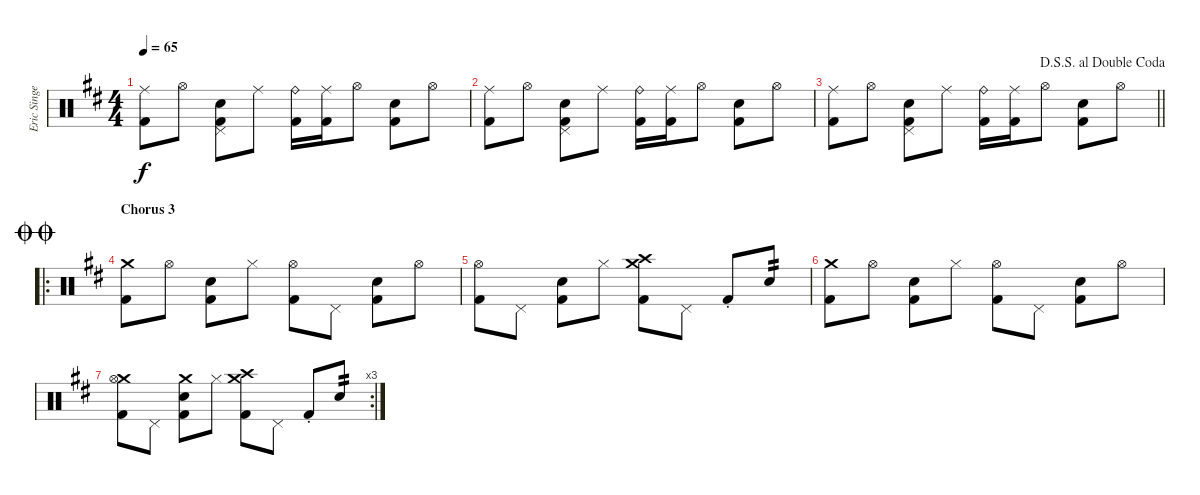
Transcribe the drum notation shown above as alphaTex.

\track ("Eric Singer" "Eric Singe") {instrument percussion}
\staff {score}
\articulation defaults
\ts (4 4)
\tempo 65
\clef neutral
\ks d
("Ride (middle)" "Kick (hit) 2").8{dy f} "Hi-Hat (open)".8 ("Pedal Hi-Hat (hit)" "Snare (hit) 2" "Kick (hit) 2").8 "Ride (middle)".8 ("Ride (bell)" "Kick (hit) 2").16 ("Ride (middle)" "Kick (hit) 2").16 "Hi-Hat (open)".8 ("Snare (hit) 2" "Kick (hit) 2").8 "Hi-Hat (open)".8 |
("Ride (middle)" "Kick (hit) 2").8 "Hi-Hat (open)".8 ("Pedal Hi-Hat (hit)" "Snare (hit) 2" "Kick (hit) 2").8 "Ride (middle)".8 ("Ride (bell)" "Kick (hit) 2").16 ("Ride (middle)" "Kick (hit) 2").16 "Hi-Hat (open)".8 ("Snare (hit) 2" "Kick (hit) 2").8 "Hi-Hat (open)".8 |
\jump dalsegnosegnoaldoublecoda
\barLineRight lightlight
("Ride (middle)" "Kick (hit) 2").8 "Hi-Hat (open)".8 ("Pedal Hi-Hat (hit)" "Snare (hit) 2" "Kick (hit) 2").8 "Ride (middle)".8 ("Ride (bell)" "Kick (hit) 2").16 ("Ride (middle)" "Kick (hit) 2").16 "Hi-Hat (open)".8 ("Snare (hit) 2" "Kick (hit) 2").8 "Hi-Hat (open)".8 |
\ro
\section ("" "Chorus 3")
\jump doublecoda
("Crash medium (hit)" "Kick (hit) 2").8 "Hi-Hat (open)".8 ("Snare (hit) 2" "Kick (hit) 2").8 "Hi-Hat (closed)".8 ("Hi-Hat (open)" "Kick (hit) 2").8 "Pedal Hi-Hat (hit)".8 ("Snare (hit) 2" "Kick (hit) 2").8 "Hi-Hat (open)".8 |
("Hi-Hat (open)" "Kick (hit) 2").8 "Pedal Hi-Hat (hit)".8 ("Snare (hit) 2" "Kick (hit) 2").8 "Hi-Hat (closed)".8 ("Crash medium (hit)" "Crash high (hit)" "Kick (hit) 2").8 "Pedal Hi-Hat (hit)".8 "Kick (hit) 2"{st}.8 "Snare (hit) 2".8{tp 2} |
("Crash medium (hit)" "Kick (hit) 2").8 "Hi-Hat (open)".8 ("Snare (hit) 2" "Kick (hit) 2").8 "Hi-Hat (closed)".8 ("Hi-Hat (open)" "Kick (hit) 2").8 "Pedal Hi-Hat (hit)".8 ("Snare (hit) 2" "Kick (hit) 2").8 "Hi-Hat (open)".8 |
\rc 3
("Crash medium (hit)" "Hi-Hat (open)" "Kick (hit) 2").8 "Pedal Hi-Hat (hit)".8 ("Crash medium (hit)" "Snare (hit) 2" "Kick (hit) 2").8 "Hi-Hat (closed)".8 ("Crash medium (hit)" "Crash high (hit)" "Kick (hit) 2").8 "Pedal Hi-Hat (hit)".8 "Kick (hit) 2"{st}.8 "Snare (hit) 2".8{tp 2}
